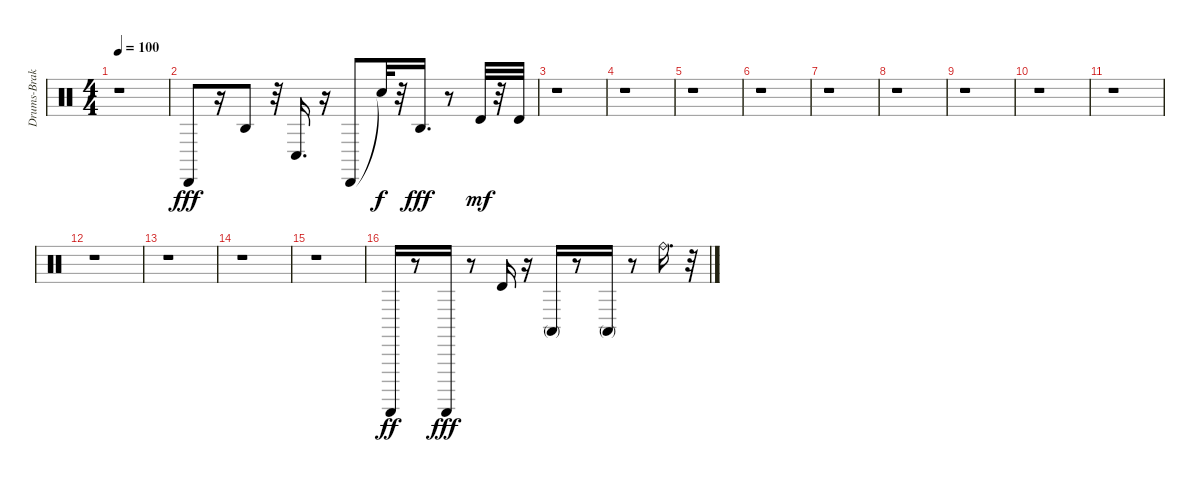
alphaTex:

\track ("Drums-Brakes" "Drums-Brak") {instrument percussion}
\staff {score}
\articulation defaults
\ts (4 4)
\tempo 100
\clef neutral
\ks c
r.1{dy fff} |
"Cabasa (hit)".8 r.16 "Agogo high (hit)".8 r.32 "Conga low (hit)".16{d} r.16 "Cabasa (hit)".8 "Snare (hit)"{t}.32{dy f} r.32 "Agogo high (hit)".16{d dy fff} r.8 "Timbale high (hit)".32{dy mf} r.32 "Timbale high (hit)".32 |
r.1 |
r.1 |
r.1 |
r.1 |
r.1 |
r.1 |
r.1 |
r.1 |
r.1 |
r.1 |
r.1 |
r.1 |
r.1 |
"Guiro (scrap-return)".16{dy ff} r.8 "Guiro (scrap-return)".16{dy fff} r.8 "Timbale high (hit)".16 r.16 "Conga high (mute)".16 r.8 "Conga high (mute)".16 r.8 "Ride (bell)".16{d} r.32
